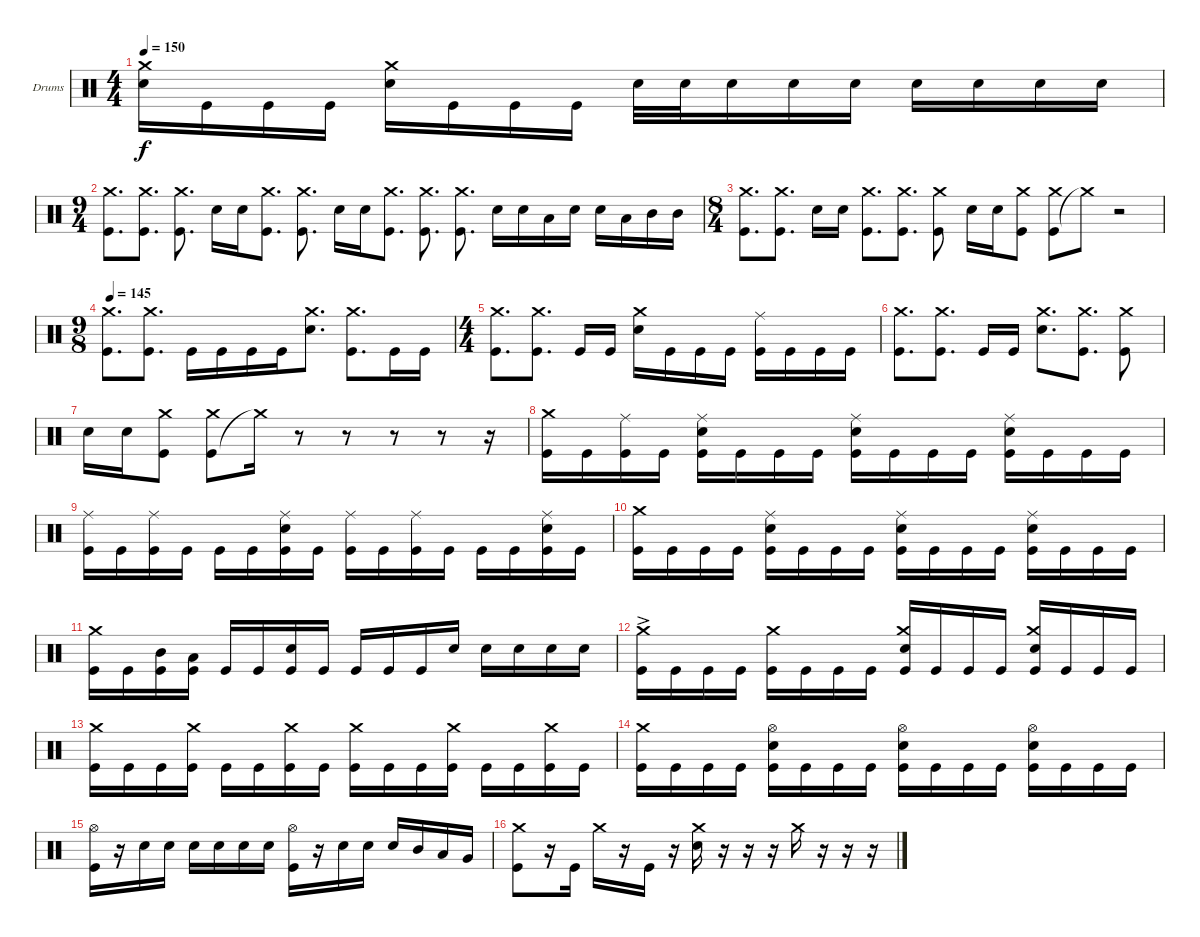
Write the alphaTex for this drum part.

\defaultSystemsLayout 4
\bracketExtendMode groupsimilarinstruments
\firstSystemTrackNameOrientation horizontal
\otherSystemsTrackNameOrientation horizontal
\track ("Moe Carlson" "Drums") {instrument percussion}
\staff {score}
\articulation defaults
\ts (4 4)
\tempo 150
\clef neutral
\ks c
("Snare (hit) 2" "Crash medium (hit)").16{dy f} "Kick (hit)".16 "Kick (hit)".16 "Kick (hit)".16 ("Snare (hit) 2" "Crash medium (hit)").16 "Kick (hit)".16 "Kick (hit)".16 "Kick (hit)".16 "Snare (hit) 2".32 "Snare (hit) 2".32 "Snare (hit) 2".16 "Snare (hit) 2".16 "Snare (hit) 2".16 "Snare (hit) 2".16 "Snare (hit) 2".16 "Snare (hit) 2".16 "Snare (hit) 2".16 |
\ts (9 4)
("Kick (hit)" "Crash medium (hit)").8{d} ("Crash medium (hit)" "Kick (hit)").8{d} ("Kick (hit)" "Crash medium (hit)").8{d} "Snare (hit) 2".16 "Snare (hit) 2".16 ("Crash medium (hit)" "Kick (hit)").8{d} ("Kick (hit)" "Crash medium (hit)").8{d} "Snare (hit) 2".16 "Snare (hit) 2".16 ("Crash medium (hit)" "Kick (hit)").8{d} ("Kick (hit)" "Crash medium (hit)").8{d} ("Crash medium (hit)" "Kick (hit)").8{d} "Snare (hit) 2".16 "Snare (hit) 2".16 "Low Tom (hit)".16 "Snare (hit) 2".16 "Snare (hit) 2".16 "Low Tom (hit)".16 "Mid Tom (hit)".16 "Mid Tom (hit)".16 |
\ts (8 4)
("Crash medium (hit)" "Kick (hit)").8{d} ("Crash medium (hit)" "Kick (hit)").8{d} "Snare (hit) 2".16 "Snare (hit) 2".16 ("Crash medium (hit)" "Kick (hit)").8{d} ("Crash medium (hit)" "Kick (hit)").8{d} ("Crash medium (hit)" "Kick (hit)").8 "Snare (hit) 2".16 "Snare (hit) 2".16 ("Crash medium (hit)" "Kick (hit)").8 ("Kick (hit)" "Crash medium (hit)").8 "Crash medium (hit)"{t}.8 r.2 |
\ts (9 8)
\tempo (145 0.00625)
("Crash medium (hit)" "Kick (hit)").8{d} ("Crash medium (hit)" "Kick (hit)").8{d} "Kick (hit)".16 "Kick (hit)".16 "Kick (hit)".16 "Kick (hit)".16 ("Snare (hit) 2" "Crash medium (hit)").8{d} ("Crash medium (hit)" "Kick (hit)").8{d} "Kick (hit)".16 "Kick (hit)".16 |
\ts (4 4)
("Crash medium (hit)" "Kick (hit)").8{d} ("Crash medium (hit)" "Kick (hit)").8{d} "Kick (hit)".16 "Kick (hit)".16 ("Snare (hit) 2" "Crash medium (hit)").16 "Kick (hit)".16 "Kick (hit)".16 "Kick (hit)".16 ("Kick (hit)" "Ride (middle)").16 "Kick (hit)".16 "Kick (hit)".16 "Kick (hit)".16 |
("Crash medium (hit)" "Kick (hit)").8{d} ("Crash medium (hit)" "Kick (hit)").8{d} "Kick (hit)".16 "Kick (hit)".16 ("Snare (hit) 2" "Crash medium (hit)").8{d} ("Crash medium (hit)" "Kick (hit)").8{d} ("Kick (hit)" "Crash medium (hit)").8 |
"Snare (hit) 2".16 "Snare (hit) 2".16 ("Crash medium (hit)" "Kick (hit)").8 ("Kick (hit)" "Crash medium (hit)").8 "Crash medium (hit)"{t}.16 r.8 r.8 r.8 r.8 r.16 |
("Crash medium (hit)" "Kick (hit)").16 "Kick (hit)".16 ("Kick (hit)" "Ride (middle)").16 "Kick (hit)".16 ("Kick (hit)" "Ride (middle)" "Snare (hit) 2").16 "Kick (hit)".16 "Kick (hit)".16 "Kick (hit)".16 ("Kick (hit)" "Snare (hit) 2" "Ride (middle)").16 "Kick (hit)".16 "Kick (hit)".16 "Kick (hit)".16 ("Kick (hit)" "Ride (middle)" "Snare (hit) 2").16 "Kick (hit)".16 "Kick (hit)".16 "Kick (hit)".16 |
("Kick (hit)" "Ride (middle)").16 "Kick (hit)".16 ("Kick (hit)" "Ride (middle)").16 "Kick (hit)".16 "Kick (hit)".16 "Kick (hit)".16 ("Kick (hit)" "Ride (middle)" "Snare (hit) 2").16 "Kick (hit)".16 ("Kick (hit)" "Ride (middle)").16 "Kick (hit)".16 ("Kick (hit)" "Ride (middle)").16 "Kick (hit)".16 "Kick (hit)".16 "Kick (hit)".16 ("Kick (hit)" "Ride (middle)" "Snare (hit) 2").16 "Kick (hit)".16 |
("Crash medium (hit)" "Kick (hit)").16 "Kick (hit)".16 "Kick (hit)".16 "Kick (hit)".16 ("Kick (hit)" "Ride (middle)" "Snare (hit) 2").16 "Kick (hit)".16 "Kick (hit)".16 "Kick (hit)".16 ("Kick (hit)" "Snare (hit) 2" "Ride (middle)").16 "Kick (hit)".16 "Kick (hit)".16 "Kick (hit)".16 ("Kick (hit)" "Ride (middle)" "Snare (hit) 2").16 "Kick (hit)".16 "Kick (hit)".16 "Kick (hit)".16 |
("Kick (hit)" "Crash medium (hit)").16 "Kick (hit)".16 ("Kick (hit)" "Mid Tom (hit)").16 ("Kick (hit)" "Low Tom (hit)").16 "Kick (hit)".16 "Kick (hit)".16 ("Kick (hit)" "Snare (hit) 2").16 "Kick (hit)".16 "Kick (hit)".16 "Kick (hit)".16 "Kick (hit)".16 "Snare (hit) 2".16 "Snare (hit) 2".16 "Snare (hit) 2".16 "Snare (hit) 2".16 "Snare (hit) 2".16 |
("Crash medium (hit)"{ac} "Kick (hit)").16 "Kick (hit)".16 "Kick (hit)".16 "Kick (hit)".16 ("Kick (hit)" "Crash medium (hit)").16 "Kick (hit)".16 "Kick (hit)".16 "Kick (hit)".16 ("Kick (hit)" "Snare (hit) 2" "Crash medium (hit)").16 "Kick (hit)".16 "Kick (hit)".16 "Kick (hit)".16 ("Kick (hit)" "Snare (hit) 2" "Crash medium (hit)").16 "Kick (hit)".16 "Kick (hit)".16 "Kick (hit)".16 |
("Kick (hit)" "Crash medium (hit)").16 "Kick (hit)".16 "Kick (hit)".16 ("Kick (hit)" "Crash medium (hit)").16 "Kick (hit)".16 "Kick (hit)".16 ("Kick (hit)" "Crash medium (hit)").16 "Kick (hit)".16 ("Kick (hit)" "Crash medium (hit)").16 "Kick (hit)".16 "Kick (hit)".16 ("Kick (hit)" "Crash medium (hit)").16 "Kick (hit)".16 "Kick (hit)".16 ("Kick (hit)" "Crash medium (hit)").16 "Kick (hit)".16 |
("Crash medium (hit)" "Kick (hit)").16 "Kick (hit)".16 "Kick (hit)".16 "Kick (hit)".16 ("Kick (hit)" "Hi-Hat (open)" "Snare (hit) 2").16 "Kick (hit)".16 "Kick (hit)".16 "Kick (hit)".16 ("Kick (hit)" "Snare (hit) 2" "Hi-Hat (open)").16 "Kick (hit)".16 "Kick (hit)".16 "Kick (hit)".16 ("Kick (hit)" "Snare (hit) 2" "Hi-Hat (open)").16 "Kick (hit)".16 "Kick (hit)".16 "Kick (hit)".16 |
("Kick (hit)" "Hi-Hat (open)").16 r.16 "Snare (hit) 2".16 "Snare (hit) 2".16 "Snare (hit) 2".16 "Snare (hit) 2".16 "Snare (hit) 2".16 "Snare (hit) 2".16 ("Hi-Hat (open)" "Kick (hit)").16 r.16 "Snare (hit) 2".16 "Snare (hit) 2".16 "Snare (hit) 2".16 "Mid Tom (hit)".16 "Low Tom (hit)".16 "Very Low Tom (hit)".16 |
("Kick (hit)" "Crash medium (hit)").8 r.16 "Kick (hit)".16 "Crash medium (hit)".16 r.16 "Kick (hit)".16 r.16 ("Snare (hit) 2" "Crash medium (hit)").16 r.16 r.16 r.16 "Crash medium (hit)".16 r.16 r.16 r.16
